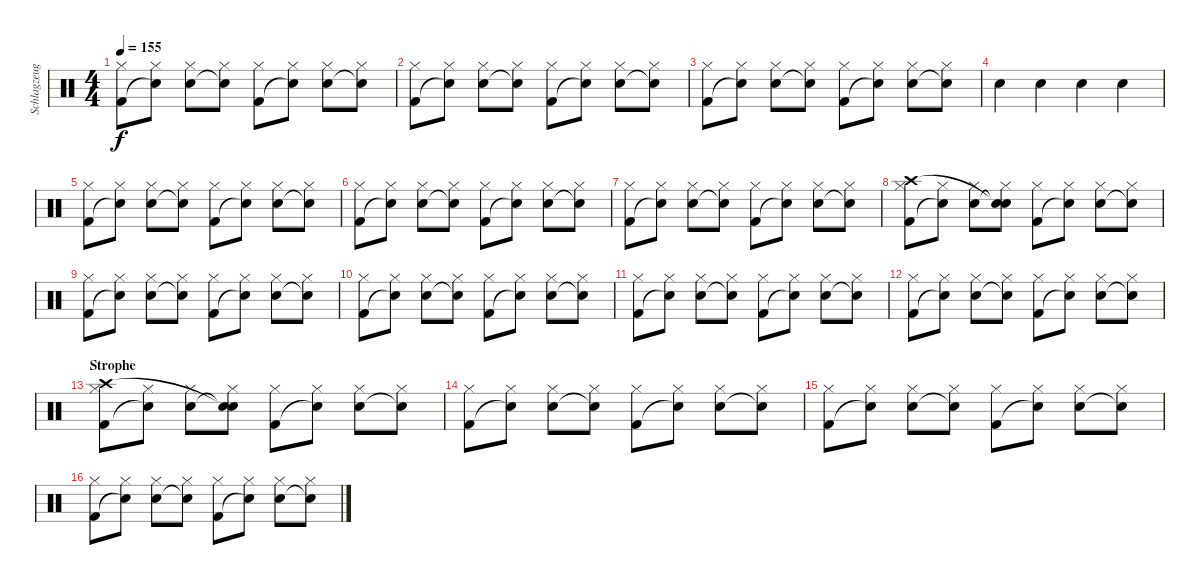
\track ("Schlagzeug" "Schlagzeug") {instrument percussion}
\staff {score}
\articulation defaults
\ts (4 4)
\tempo 155
\clef neutral
\ks c
("Hi-Hat (closed)" "Kick (hit) 2").8{dy f} ("Hi-Hat (closed)" "Snare (hit) 2"{t}).8 ("Hi-Hat (closed)" "Snare (hit) 2").8 ("Hi-Hat (closed)" "Snare (hit)"{t}).8 ("Hi-Hat (closed)" "Kick (hit) 2").8 ("Hi-Hat (closed)" "Snare (hit)"{t}).8 ("Hi-Hat (closed)" "Snare (hit) 2").8 ("Hi-Hat (closed)" "Snare (hit)"{t}).8 |
("Hi-Hat (closed)" "Kick (hit) 2").8 ("Hi-Hat (closed)" "Snare (hit) 2"{t}).8 ("Hi-Hat (closed)" "Snare (hit) 2").8 ("Hi-Hat (closed)" "Snare (hit)"{t}).8 ("Hi-Hat (closed)" "Kick (hit) 2").8 ("Hi-Hat (closed)" "Snare (hit)"{t}).8 ("Hi-Hat (closed)" "Snare (hit) 2").8 ("Hi-Hat (closed)" "Snare (hit)"{t}).8 |
("Hi-Hat (closed)" "Kick (hit) 2").8 ("Hi-Hat (closed)" "Snare (hit) 2"{t}).8 ("Hi-Hat (closed)" "Snare (hit) 2").8 ("Hi-Hat (closed)" "Snare (hit)"{t}).8 ("Hi-Hat (closed)" "Kick (hit) 2").8 ("Hi-Hat (closed)" "Snare (hit)"{t}).8 ("Hi-Hat (closed)" "Snare (hit) 2").8 ("Hi-Hat (closed)" "Snare (hit)"{t}).8 |
"Snare (hit) 2".4 "Snare (hit) 2".4 "Snare (hit) 2".4 "Snare (hit) 2".4 |
("Hi-Hat (closed)" "Kick (hit) 2").8 ("Hi-Hat (closed)" "Snare (hit) 2"{t}).8 ("Hi-Hat (closed)" "Snare (hit) 2").8 ("Hi-Hat (closed)" "Snare (hit)"{t}).8 ("Hi-Hat (closed)" "Kick (hit) 2").8 ("Hi-Hat (closed)" "Snare (hit)"{t}).8 ("Hi-Hat (closed)" "Snare (hit) 2").8 ("Hi-Hat (closed)" "Snare (hit)"{t}).8 |
("Hi-Hat (closed)" "Kick (hit) 2").8 ("Hi-Hat (closed)" "Snare (hit) 2"{t}).8 ("Hi-Hat (closed)" "Snare (hit) 2").8 ("Hi-Hat (closed)" "Snare (hit)"{t}).8 ("Hi-Hat (closed)" "Kick (hit) 2").8 ("Hi-Hat (closed)" "Snare (hit)"{t}).8 ("Hi-Hat (closed)" "Snare (hit) 2").8 ("Hi-Hat (closed)" "Snare (hit)"{t}).8 |
("Hi-Hat (closed)" "Kick (hit) 2").8 ("Hi-Hat (closed)" "Snare (hit) 2"{t}).8 ("Hi-Hat (closed)" "Snare (hit) 2").8 ("Hi-Hat (closed)" "Snare (hit)"{t}).8 ("Hi-Hat (closed)" "Kick (hit) 2").8 ("Hi-Hat (closed)" "Snare (hit)"{t}).8 ("Hi-Hat (closed)" "Snare (hit) 2").8 ("Hi-Hat (closed)" "Snare (hit)"{t}).8 |
("Hi-Hat (closed)" "Kick (hit) 2" "Crash high (hit)").8 ("Hi-Hat (closed)" "Snare (hit) 2"{t}).8 ("Hi-Hat (closed)" "Snare (hit) 2").8 ("Hi-Hat (closed)" "Snare (hit)"{t} "Snare (hit)"{t}).8 ("Hi-Hat (closed)" "Kick (hit) 2").8 ("Hi-Hat (closed)" "Snare (hit)"{t}).8 ("Hi-Hat (closed)" "Snare (hit) 2").8 ("Hi-Hat (closed)" "Snare (hit)"{t}).8 |
("Hi-Hat (closed)" "Kick (hit) 2").8 ("Hi-Hat (closed)" "Snare (hit) 2"{t}).8 ("Hi-Hat (closed)" "Snare (hit) 2").8 ("Hi-Hat (closed)" "Snare (hit)"{t}).8 ("Hi-Hat (closed)" "Kick (hit) 2").8 ("Hi-Hat (closed)" "Snare (hit)"{t}).8 ("Hi-Hat (closed)" "Snare (hit) 2").8 ("Hi-Hat (closed)" "Snare (hit)"{t}).8 |
("Hi-Hat (closed)" "Kick (hit) 2").8 ("Hi-Hat (closed)" "Snare (hit) 2"{t}).8 ("Hi-Hat (closed)" "Snare (hit) 2").8 ("Hi-Hat (closed)" "Snare (hit)"{t}).8 ("Hi-Hat (closed)" "Kick (hit) 2").8 ("Hi-Hat (closed)" "Snare (hit)"{t}).8 ("Hi-Hat (closed)" "Snare (hit) 2").8 ("Hi-Hat (closed)" "Snare (hit)"{t}).8 |
("Hi-Hat (closed)" "Kick (hit) 2").8 ("Hi-Hat (closed)" "Snare (hit) 2"{t}).8 ("Hi-Hat (closed)" "Snare (hit) 2").8 ("Hi-Hat (closed)" "Snare (hit)"{t}).8 ("Hi-Hat (closed)" "Kick (hit) 2").8 ("Hi-Hat (closed)" "Snare (hit)"{t}).8 ("Hi-Hat (closed)" "Snare (hit) 2").8 ("Hi-Hat (closed)" "Snare (hit)"{t}).8 |
("Hi-Hat (closed)" "Kick (hit) 2").8 ("Hi-Hat (closed)" "Snare (hit) 2"{t}).8 ("Hi-Hat (closed)" "Snare (hit) 2").8 ("Hi-Hat (closed)" "Snare (hit)"{t}).8 ("Hi-Hat (closed)" "Kick (hit) 2").8 ("Hi-Hat (closed)" "Snare (hit)"{t}).8 ("Hi-Hat (closed)" "Snare (hit) 2").8 ("Hi-Hat (closed)" "Snare (hit)"{t}).8 |
\section ("" "Strophe")
("Hi-Hat (closed)" "Kick (hit) 2" "Crash high (hit)").8 ("Hi-Hat (closed)" "Snare (hit) 2"{t}).8 ("Hi-Hat (closed)" "Snare (hit) 2").8 ("Hi-Hat (closed)" "Snare (hit)"{t} "Snare (hit)"{t}).8 ("Hi-Hat (closed)" "Kick (hit) 2").8 ("Hi-Hat (closed)" "Snare (hit)"{t}).8 ("Hi-Hat (closed)" "Snare (hit) 2").8 ("Hi-Hat (closed)" "Snare (hit)"{t}).8 |
("Hi-Hat (closed)" "Kick (hit) 2").8 ("Hi-Hat (closed)" "Snare (hit) 2"{t}).8 ("Hi-Hat (closed)" "Snare (hit) 2").8 ("Hi-Hat (closed)" "Snare (hit)"{t}).8 ("Hi-Hat (closed)" "Kick (hit) 2").8 ("Hi-Hat (closed)" "Snare (hit)"{t}).8 ("Hi-Hat (closed)" "Snare (hit) 2").8 ("Hi-Hat (closed)" "Snare (hit)"{t}).8 |
("Hi-Hat (closed)" "Kick (hit) 2").8 ("Hi-Hat (closed)" "Snare (hit) 2"{t}).8 ("Hi-Hat (closed)" "Snare (hit) 2").8 ("Hi-Hat (closed)" "Snare (hit)"{t}).8 ("Hi-Hat (closed)" "Kick (hit) 2").8 ("Hi-Hat (closed)" "Snare (hit)"{t}).8 ("Hi-Hat (closed)" "Snare (hit) 2").8 ("Hi-Hat (closed)" "Snare (hit)"{t}).8 |
("Hi-Hat (closed)" "Kick (hit) 2").8 ("Hi-Hat (closed)" "Snare (hit) 2"{t}).8 ("Hi-Hat (closed)" "Snare (hit) 2").8 ("Hi-Hat (closed)" "Snare (hit)"{t}).8 ("Hi-Hat (closed)" "Kick (hit) 2").8 ("Hi-Hat (closed)" "Snare (hit)"{t}).8 ("Hi-Hat (closed)" "Snare (hit) 2").8 ("Hi-Hat (closed)" "Snare (hit)"{t}).8
